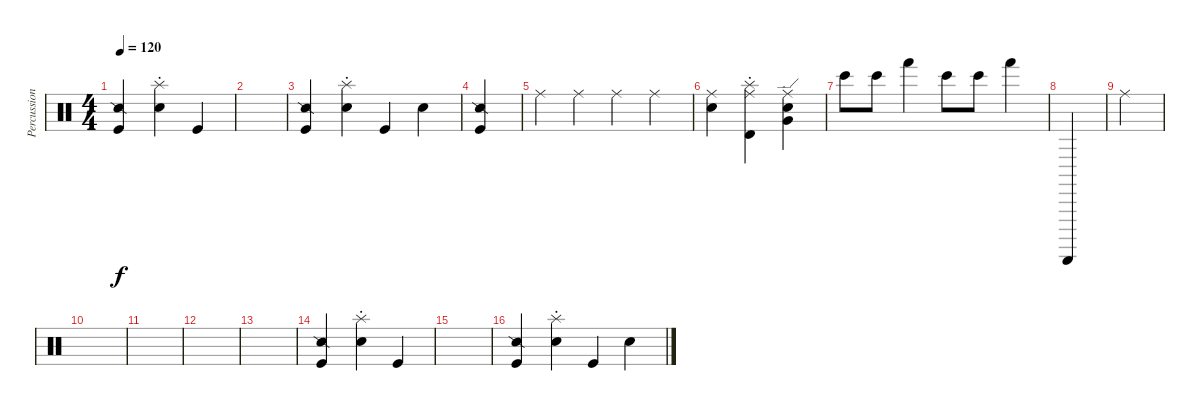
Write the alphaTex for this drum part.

\track ("Percussion" "Percussion") {instrument percussion}
\staff {score}
\articulation defaults
\ts (4 4)
\tempo 120
\clef neutral
\ks c
("Kick (hit)" "Snare (side stick) 2").4{dy f} ("Snare (hit) 2" "Splash (choke)").4 "Kick (hit)".4 |
|
("Kick (hit)" "Snare (side stick) 2").4 ("Snare (hit) 2" "Splash (choke)").4 "Kick (hit)".4 "Electric Snare (hit)".4 |
("Snare (side stick) 2" "Kick (hit)").4 |
"Ride (middle)".4 "Ride (middle)".4 "Ride (middle)".4 "Ride (middle)".4 |
("Ride (middle)" "Snare (hit)").4 ("Ride (middle)" "Timbale high (hit)" "Splash (choke)").4 ("Snare (hit)" "Very Low Tom (hit)" "Ride (edge)").4 |
"Bongo High (hit)".8 "Bongo High (hit)".8 "Hand (hit)".4 "Bongo High (hit)".8 "Bongo High (hit)".8 "Hand (hit)".4 |
"Guiro (scrap-return)".4 |
"Ride (middle)".4 |
|
|
|
|
("Kick (hit)" "Snare (side stick) 2").4 ("Snare (hit) 2" "Splash (choke)").4 "Kick (hit)".4 |
|
("Kick (hit)" "Snare (side stick) 2").4 ("Snare (hit) 2" "Splash (choke)").4 "Kick (hit)".4 "Electric Snare (hit)".4
